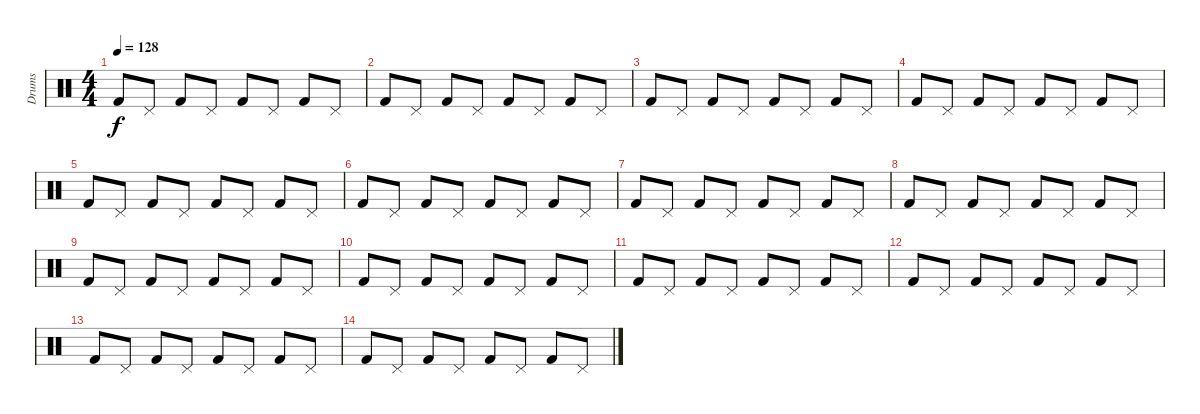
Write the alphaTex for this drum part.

\track ("Drums" "Drums") {instrument percussion}
\staff {score}
\articulation defaults
\ts (4 4)
\tempo 128
\clef neutral
\ks c "Kick (hit) 2".8{dy f} "Pedal Hi-Hat (hit)".8 "Kick (hit) 2".8 "Pedal Hi-Hat (hit)".8 "Kick (hit) 2".8 "Pedal Hi-Hat (hit)".8 "Kick (hit) 2".8 "Pedal Hi-Hat (hit)".8
|
"Kick (hit) 2".8 "Pedal Hi-Hat (hit)".8 "Kick (hit) 2".8 "Pedal Hi-Hat (hit)".8 "Kick (hit) 2".8 "Pedal Hi-Hat (hit)".8 "Kick (hit) 2".8 "Pedal Hi-Hat (hit)".8 |
"Kick (hit) 2".8 "Pedal Hi-Hat (hit)".8 "Kick (hit) 2".8 "Pedal Hi-Hat (hit)".8 "Kick (hit) 2".8 "Pedal Hi-Hat (hit)".8 "Kick (hit) 2".8 "Pedal Hi-Hat (hit)".8 |
"Kick (hit) 2".8 "Pedal Hi-Hat (hit)".8 "Kick (hit) 2".8 "Pedal Hi-Hat (hit)".8 "Kick (hit) 2".8 "Pedal Hi-Hat (hit)".8 "Kick (hit) 2".8 "Pedal Hi-Hat (hit)".8 |
"Kick (hit) 2".8 "Pedal Hi-Hat (hit)".8 "Kick (hit) 2".8 "Pedal Hi-Hat (hit)".8 "Kick (hit) 2".8 "Pedal Hi-Hat (hit)".8 "Kick (hit) 2".8 "Pedal Hi-Hat (hit)".8 |
"Kick (hit) 2".8 "Pedal Hi-Hat (hit)".8 "Kick (hit) 2".8 "Pedal Hi-Hat (hit)".8 "Kick (hit) 2".8 "Pedal Hi-Hat (hit)".8 "Kick (hit) 2".8 "Pedal Hi-Hat (hit)".8 |
"Kick (hit) 2".8 "Pedal Hi-Hat (hit)".8 "Kick (hit) 2".8 "Pedal Hi-Hat (hit)".8 "Kick (hit) 2".8 "Pedal Hi-Hat (hit)".8 "Kick (hit) 2".8 "Pedal Hi-Hat (hit)".8 |
"Kick (hit) 2".8 "Pedal Hi-Hat (hit)".8 "Kick (hit) 2".8 "Pedal Hi-Hat (hit)".8 "Kick (hit) 2".8 "Pedal Hi-Hat (hit)".8 "Kick (hit) 2".8 "Pedal Hi-Hat (hit)".8 |
"Kick (hit) 2".8 "Pedal Hi-Hat (hit)".8 "Kick (hit) 2".8 "Pedal Hi-Hat (hit)".8 "Kick (hit) 2".8 "Pedal Hi-Hat (hit)".8 "Kick (hit) 2".8 "Pedal Hi-Hat (hit)".8 |
"Kick (hit) 2".8 "Pedal Hi-Hat (hit)".8 "Kick (hit) 2".8 "Pedal Hi-Hat (hit)".8 "Kick (hit) 2".8 "Pedal Hi-Hat (hit)".8 "Kick (hit) 2".8 "Pedal Hi-Hat (hit)".8 |
"Kick (hit) 2".8 "Pedal Hi-Hat (hit)".8 "Kick (hit) 2".8 "Pedal Hi-Hat (hit)".8 "Kick (hit) 2".8 "Pedal Hi-Hat (hit)".8 "Kick (hit) 2".8 "Pedal Hi-Hat (hit)".8 |
"Kick (hit) 2".8 "Pedal Hi-Hat (hit)".8 "Kick (hit) 2".8 "Pedal Hi-Hat (hit)".8 "Kick (hit) 2".8 "Pedal Hi-Hat (hit)".8 "Kick (hit) 2".8 "Pedal Hi-Hat (hit)".8 |
"Kick (hit) 2".8 "Pedal Hi-Hat (hit)".8 "Kick (hit) 2".8 "Pedal Hi-Hat (hit)".8 "Kick (hit) 2".8 "Pedal Hi-Hat (hit)".8 "Kick (hit) 2".8 "Pedal Hi-Hat (hit)".8 |
"Kick (hit) 2".8 "Pedal Hi-Hat (hit)".8 "Kick (hit) 2".8 "Pedal Hi-Hat (hit)".8 "Kick (hit) 2".8 "Pedal Hi-Hat (hit)".8 "Kick (hit) 2".8 "Pedal Hi-Hat (hit)".8
